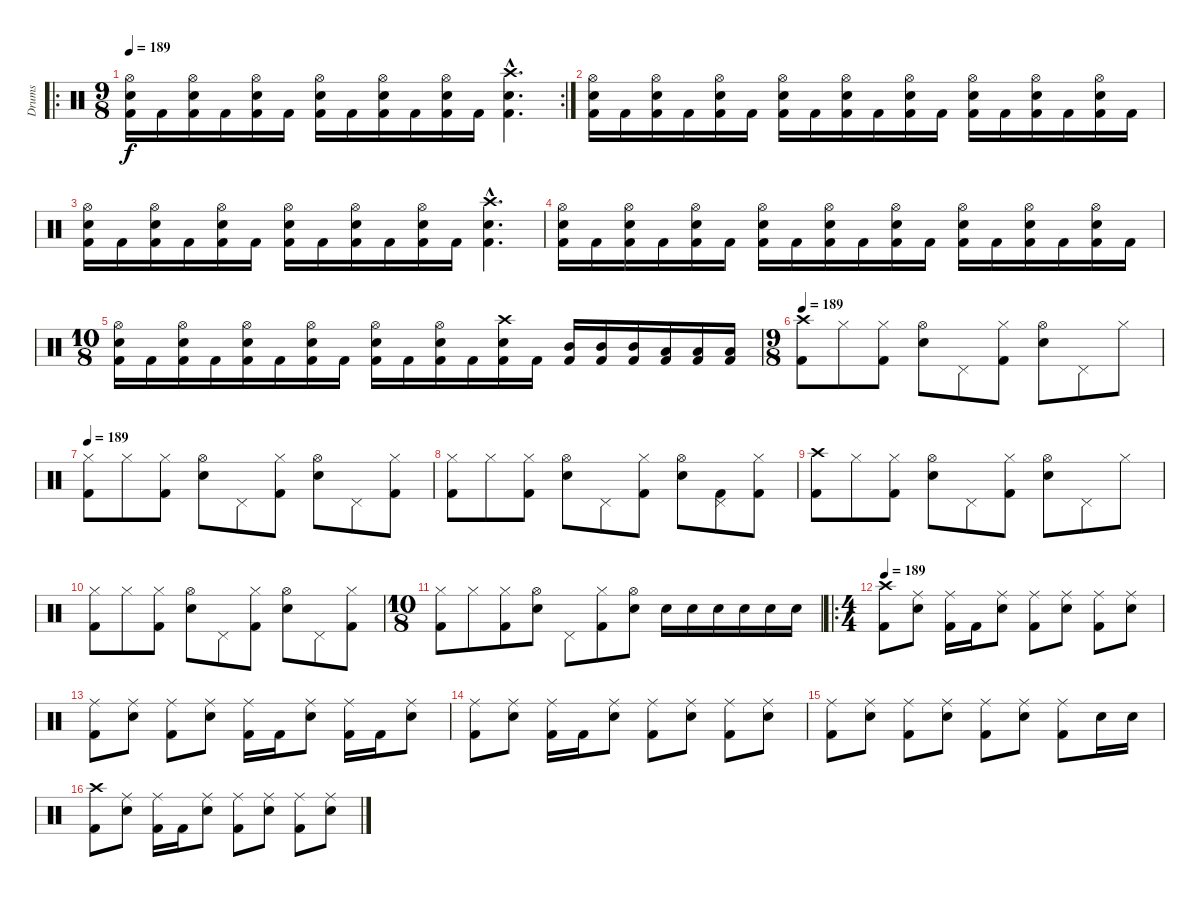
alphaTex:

\track ("Drums" "Drums") {instrument percussion}
\staff {score}
\articulation defaults
\ro
\rc 2
\ts (9 8)
\tempo 189
\clef neutral
\ks c
("Hi-Hat (open)" "Electric Snare (hit)" "Kick (hit) 2").16{dy f} "Kick (hit) 2".16 ("Hi-Hat (open)" "Electric Snare (hit)" "Kick (hit) 2").16 "Kick (hit) 2".16 ("Hi-Hat (open)" "Electric Snare (hit)" "Kick (hit) 2").16 "Kick (hit) 2".16 ("Hi-Hat (open)" "Electric Snare (hit)" "Kick (hit) 2").16 "Kick (hit) 2".16 ("Hi-Hat (open)" "Electric Snare (hit)" "Kick (hit) 2").16 "Kick (hit) 2".16 ("Hi-Hat (open)" "Electric Snare (hit)" "Kick (hit) 2").16 "Kick (hit) 2".16 ("Crash high (hit)"{hac} "Electric Snare (hit)"{hac} "Kick (hit) 2"{hac}).4{d} |
("Hi-Hat (open)" "Electric Snare (hit)" "Kick (hit) 2").16 "Kick (hit) 2".16 ("Hi-Hat (open)" "Electric Snare (hit)" "Kick (hit) 2").16 "Kick (hit) 2".16 ("Hi-Hat (open)" "Electric Snare (hit)" "Kick (hit) 2").16 "Kick (hit) 2".16 ("Hi-Hat (open)" "Electric Snare (hit)" "Kick (hit) 2").16 "Kick (hit) 2".16 ("Hi-Hat (open)" "Electric Snare (hit)" "Kick (hit) 2").16 "Kick (hit) 2".16 ("Hi-Hat (open)" "Electric Snare (hit)" "Kick (hit) 2").16 "Kick (hit) 2".16 ("Hi-Hat (open)" "Electric Snare (hit)" "Kick (hit) 2").16 "Kick (hit) 2".16 ("Hi-Hat (open)" "Electric Snare (hit)" "Kick (hit) 2").16 "Kick (hit) 2".16 ("Hi-Hat (open)" "Electric Snare (hit)" "Kick (hit) 2").16 "Kick (hit) 2".16 |
("Hi-Hat (open)" "Electric Snare (hit)" "Kick (hit) 2").16 "Kick (hit) 2".16 ("Hi-Hat (open)" "Electric Snare (hit)" "Kick (hit) 2").16 "Kick (hit) 2".16 ("Hi-Hat (open)" "Electric Snare (hit)" "Kick (hit) 2").16 "Kick (hit) 2".16 ("Hi-Hat (open)" "Electric Snare (hit)" "Kick (hit) 2").16 "Kick (hit) 2".16 ("Hi-Hat (open)" "Electric Snare (hit)" "Kick (hit) 2").16 "Kick (hit) 2".16 ("Hi-Hat (open)" "Electric Snare (hit)" "Kick (hit) 2").16 "Kick (hit) 2".16 ("Crash high (hit)"{hac} "Electric Snare (hit)"{hac} "Kick (hit) 2"{hac}).4{d} |
("Hi-Hat (open)" "Electric Snare (hit)" "Kick (hit) 2").16 "Kick (hit) 2".16 ("Hi-Hat (open)" "Electric Snare (hit)" "Kick (hit) 2").16 "Kick (hit) 2".16 ("Hi-Hat (open)" "Electric Snare (hit)" "Kick (hit) 2").16 "Kick (hit) 2".16 ("Hi-Hat (open)" "Electric Snare (hit)" "Kick (hit) 2").16 "Kick (hit) 2".16 ("Hi-Hat (open)" "Electric Snare (hit)" "Kick (hit) 2").16 "Kick (hit) 2".16 ("Hi-Hat (open)" "Electric Snare (hit)" "Kick (hit) 2").16 "Kick (hit) 2".16 ("Hi-Hat (open)" "Electric Snare (hit)" "Kick (hit) 2").16 "Kick (hit) 2".16 ("Hi-Hat (open)" "Electric Snare (hit)" "Kick (hit) 2").16 "Kick (hit) 2".16 ("Hi-Hat (open)" "Electric Snare (hit)" "Kick (hit) 2").16 "Kick (hit) 2".16 |
\ts (10 8)
("Hi-Hat (open)" "Electric Snare (hit)" "Kick (hit) 2").16 "Kick (hit) 2".16 ("Hi-Hat (open)" "Electric Snare (hit)" "Kick (hit) 2").16 "Kick (hit) 2".16 ("Hi-Hat (open)" "Electric Snare (hit)" "Kick (hit) 2").16 "Kick (hit) 2".16 ("Hi-Hat (open)" "Electric Snare (hit)" "Kick (hit) 2").16 "Kick (hit) 2".16 ("Hi-Hat (open)" "Electric Snare (hit)" "Kick (hit) 2").16 "Kick (hit) 2".16 ("Hi-Hat (open)" "Electric Snare (hit)" "Kick (hit) 2").16 "Kick (hit) 2".16 ("Crash high (hit)" "Electric Snare (hit)" "Kick (hit) 2").16 "Kick (hit) 2".16 ("Mid Tom (hit)" "Kick (hit) 2").16 ("Mid Tom (hit)" "Kick (hit) 2").16 ("Mid Tom (hit)" "Kick (hit) 2").16 ("Low Tom (hit)" "Kick (hit) 2").16 ("Low Tom (hit)" "Kick (hit) 2").16 ("Low Tom (hit)" "Kick (hit) 2").16 |
\ts (9 8)
\tempo 189
("Crash high (hit)" "Kick (hit) 2").8 "Hi-Hat (closed)".8 ("Hi-Hat (closed)" "Kick (hit) 2").8 ("Hi-Hat (open)" "Electric Snare (hit)").8 "Pedal Hi-Hat (hit)".8 ("Hi-Hat (closed)" "Kick (hit) 2").8 ("Hi-Hat (open)" "Electric Snare (hit)").8 "Pedal Hi-Hat (hit)".8 "Hi-Hat (closed)".8 |
\tempo 189
("Hi-Hat (closed)" "Kick (hit) 2").8 "Hi-Hat (closed)".8 ("Hi-Hat (closed)" "Kick (hit) 2").8 ("Hi-Hat (open)" "Electric Snare (hit)").8 "Pedal Hi-Hat (hit)".8 ("Hi-Hat (closed)" "Kick (hit) 2").8 ("Hi-Hat (open)" "Electric Snare (hit)").8 "Pedal Hi-Hat (hit)".8 ("Hi-Hat (closed)" "Kick (hit) 2").8 |
("Hi-Hat (closed)" "Kick (hit) 2").8 "Hi-Hat (closed)".8 ("Hi-Hat (closed)" "Kick (hit) 2").8 ("Hi-Hat (open)" "Electric Snare (hit)").8 "Pedal Hi-Hat (hit)".8 ("Hi-Hat (closed)" "Kick (hit) 2").8 ("Hi-Hat (open)" "Electric Snare (hit)").8 ("Pedal Hi-Hat (hit)" "Kick (hit) 2").8 ("Hi-Hat (closed)" "Kick (hit) 2").8 |
("Crash high (hit)" "Kick (hit) 2").8 "Hi-Hat (closed)".8 ("Hi-Hat (closed)" "Kick (hit) 2").8 ("Hi-Hat (open)" "Electric Snare (hit)").8 "Pedal Hi-Hat (hit)".8 ("Hi-Hat (closed)" "Kick (hit) 2").8 ("Hi-Hat (open)" "Electric Snare (hit)").8 "Pedal Hi-Hat (hit)".8 "Hi-Hat (closed)".8 |
("Hi-Hat (closed)" "Kick (hit) 2").8 "Hi-Hat (closed)".8 ("Hi-Hat (closed)" "Kick (hit) 2").8 ("Hi-Hat (open)" "Electric Snare (hit)").8 "Pedal Hi-Hat (hit)".8 ("Hi-Hat (closed)" "Kick (hit) 2").8 ("Hi-Hat (open)" "Electric Snare (hit)").8 "Pedal Hi-Hat (hit)".8 ("Hi-Hat (closed)" "Kick (hit) 2").8 |
\ts (10 8)
("Hi-Hat (closed)" "Kick (hit) 2").8 "Hi-Hat (closed)".8 ("Hi-Hat (closed)" "Kick (hit) 2").8 ("Hi-Hat (open)" "Electric Snare (hit)").8 "Pedal Hi-Hat (hit)".8 ("Hi-Hat (closed)" "Kick (hit) 2").8 ("Hi-Hat (open)" "Electric Snare (hit)").8 "Electric Snare (hit)".16 "Electric Snare (hit)".16 "Electric Snare (hit)".16 "Electric Snare (hit)".16 "Electric Snare (hit)".16 "Electric Snare (hit)".16 |
\ro
\ts (4 4)
\tempo 189
("Crash high (hit)" "Kick (hit) 2").8 ("Ride (middle)" "Electric Snare (hit)").8 ("Ride (middle)" "Kick (hit) 2").16 "Kick (hit) 2".16 ("Ride (middle)" "Electric Snare (hit)").8 ("Ride (middle)" "Kick (hit) 2").8 ("Ride (middle)" "Electric Snare (hit)").8 ("Ride (middle)" "Kick (hit) 2").8 ("Ride (middle)" "Electric Snare (hit)").8 |
("Ride (middle)" "Kick (hit) 2").8 ("Ride (middle)" "Electric Snare (hit)").8 ("Ride (middle)" "Kick (hit) 2").8 ("Ride (middle)" "Electric Snare (hit)").8 ("Ride (middle)" "Kick (hit) 2").16 "Kick (hit) 2".16 ("Ride (middle)" "Electric Snare (hit)").8 ("Ride (middle)" "Kick (hit) 2").16 "Kick (hit) 2".16 ("Ride (middle)" "Electric Snare (hit)").8 |
("Ride (middle)" "Kick (hit) 2").8 ("Ride (middle)" "Electric Snare (hit)").8 ("Ride (middle)" "Kick (hit) 2").16 "Kick (hit) 2".16 ("Ride (middle)" "Electric Snare (hit)").8 ("Ride (middle)" "Kick (hit) 2").8 ("Ride (middle)" "Electric Snare (hit)").8 ("Ride (middle)" "Kick (hit) 2").8 ("Ride (middle)" "Electric Snare (hit)").8 |
("Ride (middle)" "Kick (hit) 2").8 ("Ride (middle)" "Electric Snare (hit)").8 ("Ride (middle)" "Kick (hit) 2").8 ("Ride (middle)" "Electric Snare (hit)").8 ("Ride (middle)" "Kick (hit) 2").8 ("Ride (middle)" "Electric Snare (hit)").8 ("Ride (middle)" "Kick (hit) 2").8 "Electric Snare (hit)".16 "Electric Snare (hit)".16 |
("Crash high (hit)" "Kick (hit) 2").8 ("Ride (middle)" "Electric Snare (hit)").8 ("Ride (middle)" "Kick (hit) 2").16 "Kick (hit) 2".16 ("Ride (middle)" "Electric Snare (hit)").8 ("Ride (middle)" "Kick (hit) 2").8 ("Ride (middle)" "Electric Snare (hit)").8 ("Ride (middle)" "Kick (hit) 2").8 ("Ride (middle)" "Electric Snare (hit)").8
